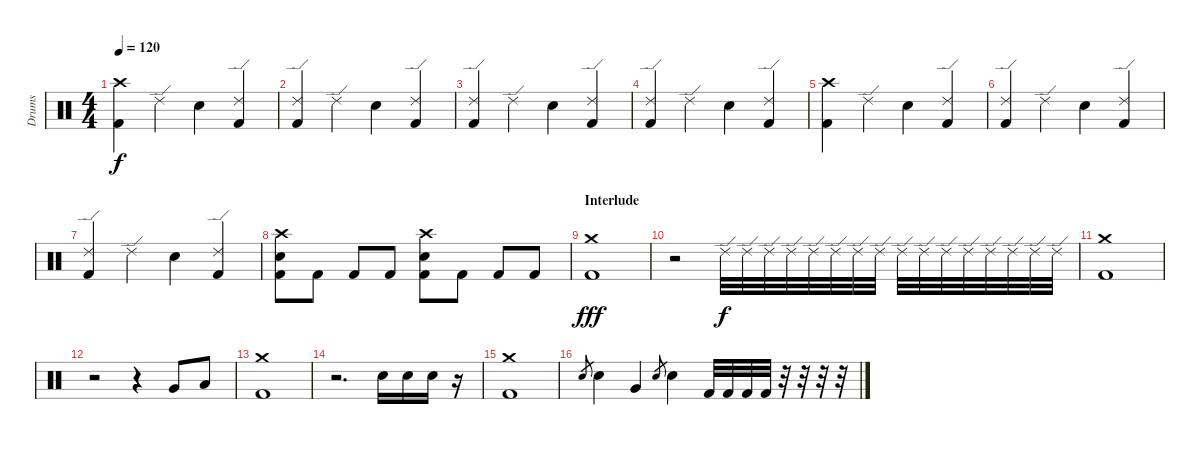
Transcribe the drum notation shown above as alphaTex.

\track ("Drums" "Drums") {instrument percussion}
\staff {score}
\articulation defaults
\ts (4 4)
\tempo 120
\clef neutral
\ks c
("Crash high (hit)" "Kick (hit) 2").4{dy f} "Ride (edge) 2".4 "Snare (hit) 2".4 ("Ride (edge) 2" "Kick (hit) 2").4 |
("Ride (edge) 2" "Kick (hit) 2").4 "Ride (edge) 2".4 "Snare (hit) 2".4 ("Ride (edge) 2" "Kick (hit) 2").4 |
("Ride (edge) 2" "Kick (hit) 2").4 "Ride (edge) 2".4 "Snare (hit) 2".4 ("Ride (edge) 2" "Kick (hit) 2").4 |
("Ride (edge) 2" "Kick (hit) 2").4 "Ride (edge) 2".4 "Snare (hit) 2".4 ("Ride (edge) 2" "Kick (hit) 2").4 |
("Crash high (hit)" "Kick (hit) 2").4 "Ride (edge) 2".4 "Snare (hit) 2".4 ("Ride (edge) 2" "Kick (hit) 2").4 |
("Ride (edge) 2" "Kick (hit) 2").4 "Ride (edge) 2".4 "Snare (hit) 2".4 ("Ride (edge) 2" "Kick (hit) 2").4 |
("Ride (edge) 2" "Kick (hit) 2").4 "Ride (edge) 2".4 "Snare (hit) 2".4 ("Ride (edge) 2" "Kick (hit) 2").4 |
("Crash high (hit)" "Snare (hit) 2" "Kick (hit) 2").8 "Kick (hit) 2".8 "Kick (hit) 2".8 "Kick (hit) 2".8 ("Crash high (hit)" "Snare (hit) 2" "Kick (hit) 2").8 "Kick (hit) 2".8 "Kick (hit) 2".8 "Kick (hit) 2".8 |
\section ("" "Interlude")
("Crash medium (hit)" "Kick (hit) 2").1{dy fff} |
r.2 "Ride (edge) 2".32{dy f} "Ride (edge) 2".32 "Ride (edge) 2".32 "Ride (edge) 2".32 "Ride (edge) 2".32 "Ride (edge) 2".32 "Ride (edge) 2".32 "Ride (edge) 2".32 "Ride (edge) 2".32 "Ride (edge) 2".32 "Ride (edge) 2".32 "Ride (edge) 2".32 "Ride (edge) 2".32 "Ride (edge) 2".32 "Ride (edge) 2".32 "Ride (edge) 2".32 |
("Crash medium (hit)" "Kick (hit) 2").1 |
r.2 r.4 "Very Low Tom (hit)".8 "Low Floor Tom (hit)".8 |
("Crash medium (hit)" "Kick (hit) 2").1 |
r.2{d} "Snare (hit) 2".16 "Snare (hit) 2".16 "Snare (hit) 2".16 r.16 |
("Crash medium (hit)" "Kick (hit) 2").1 |
"Snare (hit) 2".8{gr} "Snare (hit) 2".4 "Very Low Tom (hit)".4 "Snare (hit) 2".8{gr} "Snare (hit) 2".4 "Kick (hit) 2".32 "Kick (hit) 2".32 "Kick (hit) 2".32 "Kick (hit) 2".32 r.32 r.32 r.32 r.32
